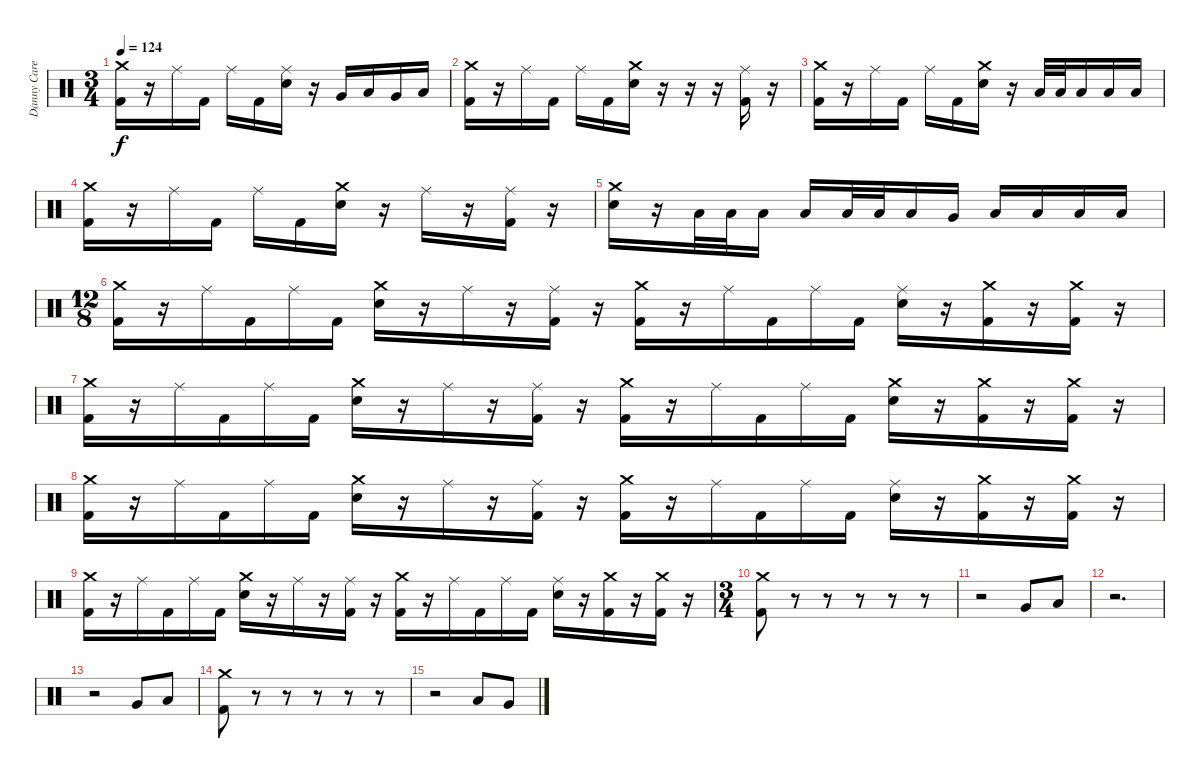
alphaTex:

\track ("Danny Carey" "Danny Care") {instrument percussion}
\staff {score}
\articulation defaults
\ts (3 4)
\tempo 124
\clef neutral
\ks c
("Crash medium (hit)" "Kick (hit) 2").16{dy f} r.16 "Ride (middle)".16 "Kick (hit) 2".16 "Ride (middle)".16 "Kick (hit) 2".16 ("Ride (middle)" "Electric Snare (hit)").16 r.16 "Very Low Tom (hit)".16 "Low Tom (hit)".16 "Very Low Tom (hit)".16 "Low Floor Tom (hit)".16 |
("Crash medium (hit)" "Kick (hit) 2").16 r.16 "Ride (middle)".16 "Kick (hit) 2".16 "Ride (middle)".16 "Kick (hit) 2".16 ("Crash medium (hit)" "Electric Snare (hit)").16 r.16 r.16 r.16 ("Ride (middle)" "Kick (hit) 2").16 r.16 |
("Crash medium (hit)" "Kick (hit) 2").16 r.16 "Ride (middle)".16 "Kick (hit) 2".16 "Ride (middle)".16 "Kick (hit) 2".16 ("Crash medium (hit)" "Electric Snare (hit)").16 r.16 "Low Tom (hit)".32 "Low Tom (hit)".32 "Low Tom (hit)".16 "Low Tom (hit)".16 "Low Tom (hit)".16 |
("Crash medium (hit)" "Kick (hit) 2").16 r.16 "Ride (middle)".16 "Kick (hit) 2".16 "Ride (middle)".16 "Kick (hit) 2".16 ("Crash medium (hit)" "Electric Snare (hit)").16 r.16 "Ride (middle)".16 r.16 ("Ride (middle)" "Kick (hit) 2").16 r.16 |
("Crash medium (hit)" "Electric Snare (hit)").16 r.16 "Low Tom (hit)".32 "Low Tom (hit)".32 "Low Tom (hit)".16 "Low Tom (hit)".16 "Low Tom (hit)".32 "Low Tom (hit)".32 "Low Tom (hit)".16 "Very Low Tom (hit)".16 "Low Floor Tom (hit)".16 "Low Floor Tom (hit)".16 "Low Floor Tom (hit)".16 "Low Floor Tom (hit)".16 |
\ts (12 8)
("Crash medium (hit)" "Kick (hit) 2").16 r.16 "Ride (middle)".16 "Kick (hit) 2".16 "Ride (middle)".16 "Kick (hit) 2".16 ("Crash medium (hit)" "Electric Snare (hit)").16 r.16 "Ride (middle)".16 r.16 ("Ride (middle)" "Kick (hit) 2").16 r.16 ("Crash medium (hit)" "Kick (hit) 2").16 r.16 "Ride (middle)".16 "Kick (hit) 2".16 "Ride (middle)".16 "Kick (hit) 2".16 ("Ride (middle)" "Electric Snare (hit)").16 r.16 ("Crash medium (hit)" "Kick (hit) 2").16 r.16 ("Crash medium (hit)" "Kick (hit) 2").16 r.16 |
("Crash medium (hit)" "Kick (hit) 2").16 r.16 "Ride (middle)".16 "Kick (hit) 2".16 "Ride (middle)".16 "Kick (hit) 2".16 ("Crash medium (hit)" "Electric Snare (hit)").16 r.16 "Ride (middle)".16 r.16 ("Ride (middle)" "Kick (hit) 2").16 r.16 ("Crash medium (hit)" "Kick (hit) 2").16 r.16 "Ride (middle)".16 "Kick (hit) 2".16 "Ride (middle)".16 "Kick (hit) 2".16 ("Crash medium (hit)" "Electric Snare (hit)").16 r.16 ("Crash medium (hit)" "Kick (hit) 2").16 r.16 ("Crash medium (hit)" "Kick (hit) 2").16 r.16 |
("Crash medium (hit)" "Kick (hit) 2").16 r.16 "Ride (middle)".16 "Kick (hit) 2".16 "Ride (middle)".16 "Kick (hit) 2".16 ("Crash medium (hit)" "Electric Snare (hit)").16 r.16 "Ride (middle)".16 r.16 ("Ride (middle)" "Kick (hit) 2").16 r.16 ("Crash medium (hit)" "Kick (hit) 2").16 r.16 "Ride (middle)".16 "Kick (hit) 2".16 "Ride (middle)".16 "Kick (hit) 2".16 ("Ride (middle)" "Electric Snare (hit)").16 r.16 ("Crash medium (hit)" "Kick (hit) 2").16 r.16 ("Crash medium (hit)" "Kick (hit) 2").16 r.16 |
("Crash medium (hit)" "Kick (hit) 2").16 r.16 "Ride (middle)".16 "Kick (hit) 2".16 "Ride (middle)".16 "Kick (hit) 2".16 ("Crash medium (hit)" "Electric Snare (hit)").16 r.16 "Ride (middle)".16 r.16 ("Ride (middle)" "Kick (hit) 2").16 r.16 ("Crash medium (hit)" "Kick (hit) 2").16 r.16 "Ride (middle)".16 "Kick (hit) 2".16 "Ride (middle)".16 "Kick (hit) 2".16 ("Ride (middle)" "Electric Snare (hit)").16 r.16 ("Crash medium (hit)" "Kick (hit) 2").16 r.16 ("Crash medium (hit)" "Kick (hit) 2").16 r.16 |
\ts (3 4)
("Crash medium (hit)" "Kick (hit) 2").8{volume 10} r.8 r.8 r.8 r.8 r.8 |
r.2 "Very Low Tom (hit)".8 "Low Floor Tom (hit)".8 |
r.2{d} |
r.2 "Very Low Tom (hit)".8 "Low Tom (hit)".8 |
("Crash medium (hit)" "Kick (hit) 2").8 r.8 r.8 r.8 r.8 r.8 |
r.2 "Low Tom (hit)".8 "Very Low Tom (hit)".8
